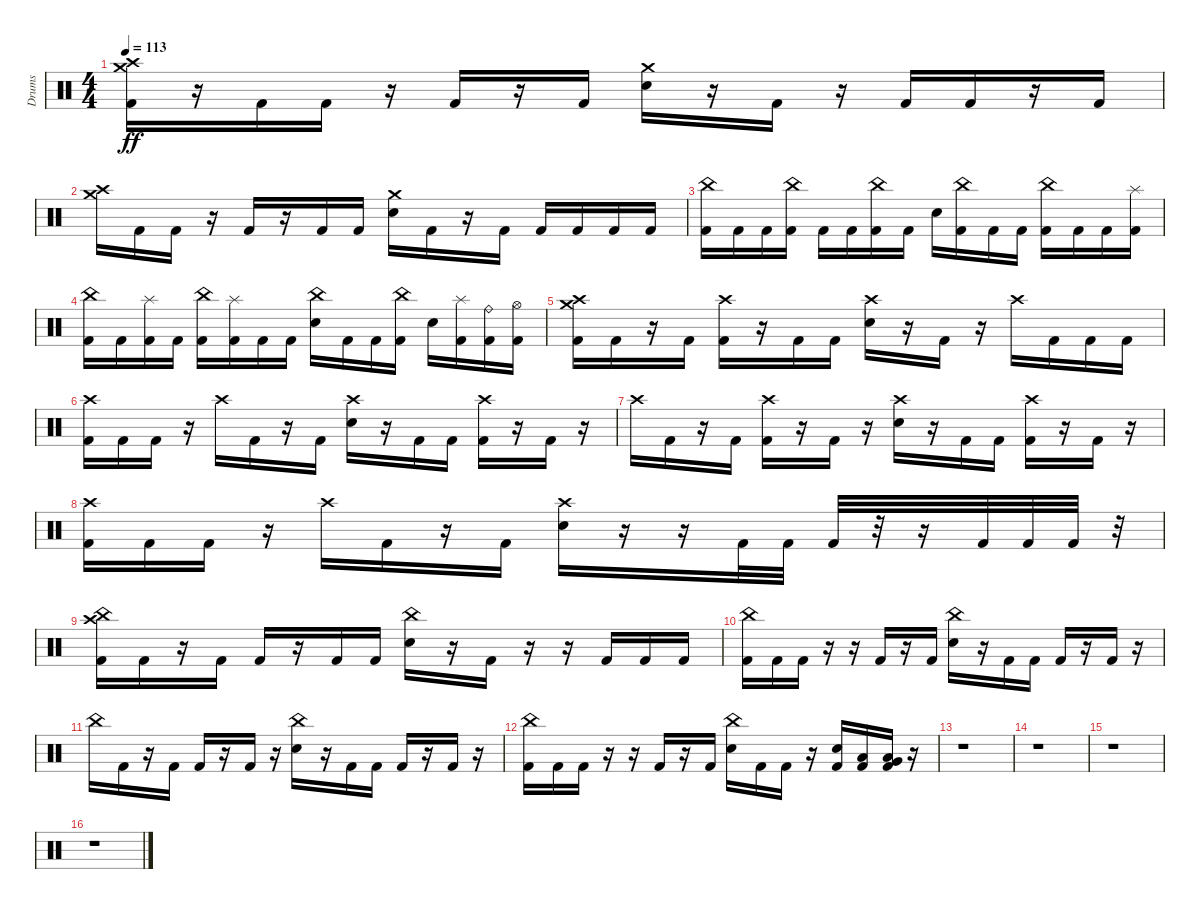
\track ("Drums" "Drums") {instrument percussion}
\staff {score}
\articulation defaults
\ts (4 4)
\tempo 113
\clef neutral
\ks c
("Crash medium (hit)" "Crash high (hit)" "Kick (hit) 2").16{dy ff} r.16 "Kick (hit) 2".16 "Kick (hit) 2".16 r.16 "Kick (hit) 2".16 r.16 "Kick (hit) 2".16 ("Crash medium (hit)" "Snare (hit) 2").16 r.16 "Kick (hit) 2".16 r.16 "Kick (hit) 2".16 "Kick (hit) 2".16 r.16 "Kick (hit) 2".16 |
("Crash medium (hit)" "Crash high (hit)").16 "Kick (hit) 2".16 "Kick (hit) 2".16 r.16 "Kick (hit) 2".16 r.16 "Kick (hit) 2".16 "Kick (hit) 2".16 ("Crash medium (hit)" "Snare (hit) 2").16 "Kick (hit) 2".16 r.16 "Kick (hit) 2".16 "Kick (hit) 2".16 "Kick (hit) 2".16 "Kick (hit) 2".16 "Kick (hit) 2".16 |
("China (hit)" "Kick (hit) 2").16 "Kick (hit) 2".16 "Kick (hit) 2".16 ("China (hit)" "Kick (hit) 2").16 "Kick (hit) 2".16 "Kick (hit) 2".16 ("China (hit)" "Kick (hit) 2").16 "Kick (hit) 2".16 "Snare (hit) 2".16 ("China (hit)" "Kick (hit) 2").16 "Kick (hit) 2".16 "Kick (hit) 2".16 ("China (hit)" "Kick (hit) 2").16 "Kick (hit) 2".16 "Kick (hit) 2".16 ("Splash (hit)" "Kick (hit) 2").16 |
("China (hit)" "Kick (hit) 2").16 "Kick (hit) 2".16 ("Splash (hit)" "Kick (hit) 2").16 "Kick (hit) 2".16 ("China (hit)" "Kick (hit) 2").16 ("Splash (hit)" "Kick (hit) 2").16 "Kick (hit) 2".16 "Kick (hit) 2".16 ("China (hit)" "Snare (hit) 2").16 "Kick (hit) 2".16 "Kick (hit) 2".16 ("China (hit)" "Kick (hit) 2").16 "Snare (hit) 2".16 ("Splash (hit)" "Kick (hit) 2").16 ("Ride (bell)" "Kick (hit) 2").16 ("Hi-Hat (open)" "Kick (hit) 2").16 |
("Crash medium (hit)" "Crash high (hit)" "Kick (hit) 2").16 "Kick (hit) 2".16 r.16 "Kick (hit) 2".16 ("Crash high (hit)" "Kick (hit) 2").16 r.16 "Kick (hit) 2".16 "Kick (hit) 2".16 ("Crash high (hit)" "Snare (hit) 2").16 r.16 "Kick (hit) 2".16 r.16 "Crash high (hit)".16 "Kick (hit) 2".16 "Kick (hit) 2".16 "Kick (hit) 2".16 |
("Crash high (hit)" "Kick (hit) 2").16 "Kick (hit) 2".16 "Kick (hit) 2".16 r.16 "Crash high (hit)".16 "Kick (hit) 2".16 r.16 "Kick (hit) 2".16 ("Crash high (hit)" "Snare (hit) 2").16 r.16 "Kick (hit) 2".16 "Kick (hit) 2".16 ("Crash high (hit)" "Kick (hit) 2").16 r.16 "Kick (hit) 2".16 r.16 |
"Crash high (hit)".16 "Kick (hit) 2".16 r.16 "Kick (hit) 2".16 ("Crash high (hit)" "Kick (hit) 2").16 r.16 "Kick (hit) 2".16 r.16 ("Crash high (hit)" "Snare (hit) 2").16 r.16 "Kick (hit) 2".16 "Kick (hit) 2".16 ("Crash high (hit)" "Kick (hit) 2").16 r.16 "Kick (hit) 2".16 r.16 |
("Crash high (hit)" "Kick (hit) 2").16 "Kick (hit) 2".16 "Kick (hit) 2".16 r.16 "Crash high (hit)".16 "Kick (hit) 2".16 r.16 "Kick (hit) 2".16 ("Crash high (hit)" "Snare (hit) 2").16 r.16 r.16 "Kick (hit) 2".32 "Kick (hit) 2".32 "Kick (hit) 2".32 r.32 r.16 "Kick (hit) 2".32 "Kick (hit) 2".32 "Kick (hit) 2".32 r.32 |
("China (hit)" "Crash high (hit)" "Kick (hit) 2").16 "Kick (hit) 2".16 r.16 "Kick (hit) 2".16 "Kick (hit) 2".16 r.16 "Kick (hit) 2".16 "Kick (hit) 2".16 ("China (hit)" "Snare (hit) 2").16 r.16 "Kick (hit) 2".16 r.16 r.16 "Kick (hit) 2".16 "Kick (hit) 2".16 "Kick (hit) 2".16 |
("China (hit)" "Kick (hit) 2").16 "Kick (hit) 2".16 "Kick (hit) 2".16 r.16 r.16 "Kick (hit) 2".16 r.16 "Kick (hit) 2".16 ("China (hit)" "Snare (hit) 2").16 r.16 "Kick (hit) 2".16 "Kick (hit) 2".16 "Kick (hit) 2".16 r.16 "Kick (hit) 2".16 r.16 |
"China (hit)".16 "Kick (hit) 2".16 r.16 "Kick (hit) 2".16 "Kick (hit) 2".16 r.16 "Kick (hit) 2".16 r.16 ("China (hit)" "Snare (hit) 2").16 r.16 "Kick (hit) 2".16 "Kick (hit) 2".16 "Kick (hit) 2".16 r.16 "Kick (hit) 2".16 r.16 |
("China (hit)" "Kick (hit) 2").16 "Kick (hit) 2".16 "Kick (hit) 2".16 r.16 r.16 "Kick (hit) 2".16 r.16 "Kick (hit) 2".16 ("China (hit)" "Snare (hit) 2").16 "Kick (hit) 2".16 "Kick (hit) 2".16 r.16 ("Snare (hit) 2" "Kick (hit) 2").16 ("Low Tom (hit)" "Kick (hit) 2").16 ("Very Low Tom (hit)" "Low Floor Tom (hit)" "Kick (hit) 2").16 r.16 |
r.1 |
r.1 |
r.1 |
r.1
